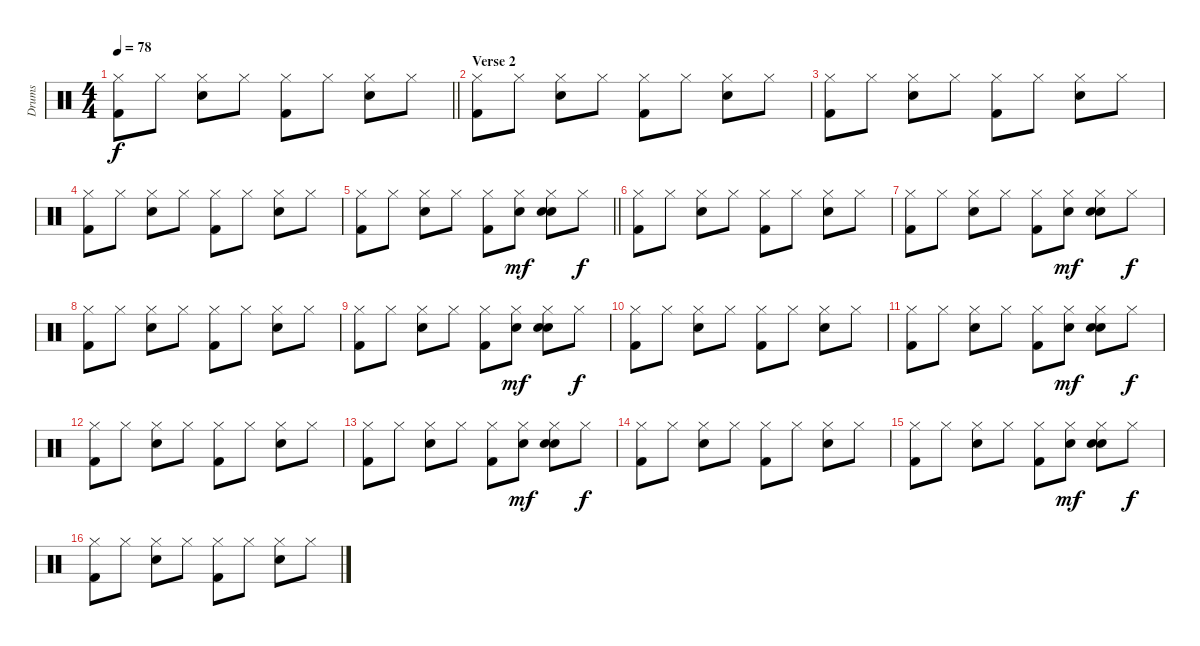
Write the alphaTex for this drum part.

\track ("Drums" "Drums") {instrument percussion}
\staff {score}
\articulation defaults
\ts (4 4)
\tempo 78
\clef neutral
\barLineRight lightlight
\ks c
("Hi-Hat (closed)" "Kick (hit) 2").8{dy f} "Hi-Hat (closed)".8 ("Hi-Hat (closed)" "Snare (hit) 2").8 "Hi-Hat (closed)".8 ("Hi-Hat (closed)" "Kick (hit) 2").8 "Hi-Hat (closed)".8 ("Hi-Hat (closed)" "Snare (hit) 2").8 "Hi-Hat (closed)".8 |
\section ("" "Verse 2")
("Hi-Hat (closed)" "Kick (hit) 2").8 "Hi-Hat (closed)".8 ("Hi-Hat (closed)" "Snare (hit) 2").8 "Hi-Hat (closed)".8 ("Hi-Hat (closed)" "Kick (hit) 2").8 "Hi-Hat (closed)".8 ("Hi-Hat (closed)" "Snare (hit) 2").8 "Hi-Hat (closed)".8 |
("Hi-Hat (closed)" "Kick (hit) 2").8 "Hi-Hat (closed)".8 ("Hi-Hat (closed)" "Snare (hit) 2").8 "Hi-Hat (closed)".8 ("Hi-Hat (closed)" "Kick (hit) 2").8 "Hi-Hat (closed)".8 ("Hi-Hat (closed)" "Snare (hit) 2").8 "Hi-Hat (closed)".8 |
("Hi-Hat (closed)" "Kick (hit) 2").8 "Hi-Hat (closed)".8 ("Hi-Hat (closed)" "Snare (hit) 2").8 "Hi-Hat (closed)".8 ("Hi-Hat (closed)" "Kick (hit) 2").8 "Hi-Hat (closed)".8 ("Hi-Hat (closed)" "Snare (hit) 2").8 "Hi-Hat (closed)".8 |
\barLineRight lightlight
("Hi-Hat (closed)" "Kick (hit) 2").8 "Hi-Hat (closed)".8 ("Hi-Hat (closed)" "Snare (hit) 2").8 "Hi-Hat (closed)".8 ("Hi-Hat (closed)" "Kick (hit) 2").8 ("Hi-Hat (closed)" "Hand Clap (hit)").8{dy mf} ("Hi-Hat (closed)" "Snare (hit) 2" "Hand Clap (hit)").8 "Hi-Hat (closed)".8{dy f} |
("Hi-Hat (closed)" "Kick (hit) 2").8 "Hi-Hat (closed)".8 ("Hi-Hat (closed)" "Snare (hit) 2").8 "Hi-Hat (closed)".8 ("Hi-Hat (closed)" "Kick (hit) 2").8 "Hi-Hat (closed)".8 ("Hi-Hat (closed)" "Snare (hit) 2").8 "Hi-Hat (closed)".8 |
("Hi-Hat (closed)" "Kick (hit) 2").8 "Hi-Hat (closed)".8 ("Hi-Hat (closed)" "Snare (hit) 2").8 "Hi-Hat (closed)".8 ("Hi-Hat (closed)" "Kick (hit) 2").8 ("Hi-Hat (closed)" "Hand Clap (hit)").8{dy mf} ("Hi-Hat (closed)" "Snare (hit) 2" "Hand Clap (hit)").8 "Hi-Hat (closed)".8{dy f} |
("Hi-Hat (closed)" "Kick (hit) 2").8 "Hi-Hat (closed)".8 ("Hi-Hat (closed)" "Snare (hit) 2").8 "Hi-Hat (closed)".8 ("Hi-Hat (closed)" "Kick (hit) 2").8 "Hi-Hat (closed)".8 ("Hi-Hat (closed)" "Snare (hit) 2").8 "Hi-Hat (closed)".8 |
("Hi-Hat (closed)" "Kick (hit) 2").8 "Hi-Hat (closed)".8 ("Hi-Hat (closed)" "Snare (hit) 2").8 "Hi-Hat (closed)".8 ("Hi-Hat (closed)" "Kick (hit) 2").8 ("Hi-Hat (closed)" "Hand Clap (hit)").8{dy mf} ("Hi-Hat (closed)" "Snare (hit) 2" "Hand Clap (hit)").8 "Hi-Hat (closed)".8{dy f} |
("Hi-Hat (closed)" "Kick (hit) 2").8 "Hi-Hat (closed)".8 ("Hi-Hat (closed)" "Snare (hit) 2").8 "Hi-Hat (closed)".8 ("Hi-Hat (closed)" "Kick (hit) 2").8 "Hi-Hat (closed)".8 ("Hi-Hat (closed)" "Snare (hit) 2").8 "Hi-Hat (closed)".8 |
("Hi-Hat (closed)" "Kick (hit) 2").8 "Hi-Hat (closed)".8 ("Hi-Hat (closed)" "Snare (hit) 2").8 "Hi-Hat (closed)".8 ("Hi-Hat (closed)" "Kick (hit) 2").8 ("Hi-Hat (closed)" "Hand Clap (hit)").8{dy mf} ("Hi-Hat (closed)" "Snare (hit) 2" "Hand Clap (hit)").8 "Hi-Hat (closed)".8{dy f} |
("Hi-Hat (closed)" "Kick (hit) 2").8 "Hi-Hat (closed)".8 ("Hi-Hat (closed)" "Snare (hit) 2").8 "Hi-Hat (closed)".8 ("Hi-Hat (closed)" "Kick (hit) 2").8 "Hi-Hat (closed)".8 ("Hi-Hat (closed)" "Snare (hit) 2").8 "Hi-Hat (closed)".8 |
("Hi-Hat (closed)" "Kick (hit) 2").8 "Hi-Hat (closed)".8 ("Hi-Hat (closed)" "Snare (hit) 2").8 "Hi-Hat (closed)".8 ("Hi-Hat (closed)" "Kick (hit) 2").8 ("Hi-Hat (closed)" "Hand Clap (hit)").8{dy mf} ("Hi-Hat (closed)" "Snare (hit) 2" "Hand Clap (hit)").8 "Hi-Hat (closed)".8{dy f} |
("Hi-Hat (closed)" "Kick (hit) 2").8 "Hi-Hat (closed)".8 ("Hi-Hat (closed)" "Snare (hit) 2").8 "Hi-Hat (closed)".8 ("Hi-Hat (closed)" "Kick (hit) 2").8 "Hi-Hat (closed)".8 ("Hi-Hat (closed)" "Snare (hit) 2").8 "Hi-Hat (closed)".8 |
("Hi-Hat (closed)" "Kick (hit) 2").8 "Hi-Hat (closed)".8 ("Hi-Hat (closed)" "Snare (hit) 2").8 "Hi-Hat (closed)".8 ("Hi-Hat (closed)" "Kick (hit) 2").8 ("Hi-Hat (closed)" "Hand Clap (hit)").8{dy mf} ("Hi-Hat (closed)" "Snare (hit) 2" "Hand Clap (hit)").8 "Hi-Hat (closed)".8{dy f} |
("Hi-Hat (closed)" "Kick (hit) 2").8 "Hi-Hat (closed)".8 ("Hi-Hat (closed)" "Snare (hit) 2").8 "Hi-Hat (closed)".8 ("Hi-Hat (closed)" "Kick (hit) 2").8 "Hi-Hat (closed)".8 ("Hi-Hat (closed)" "Snare (hit) 2").8 "Hi-Hat (closed)".8
